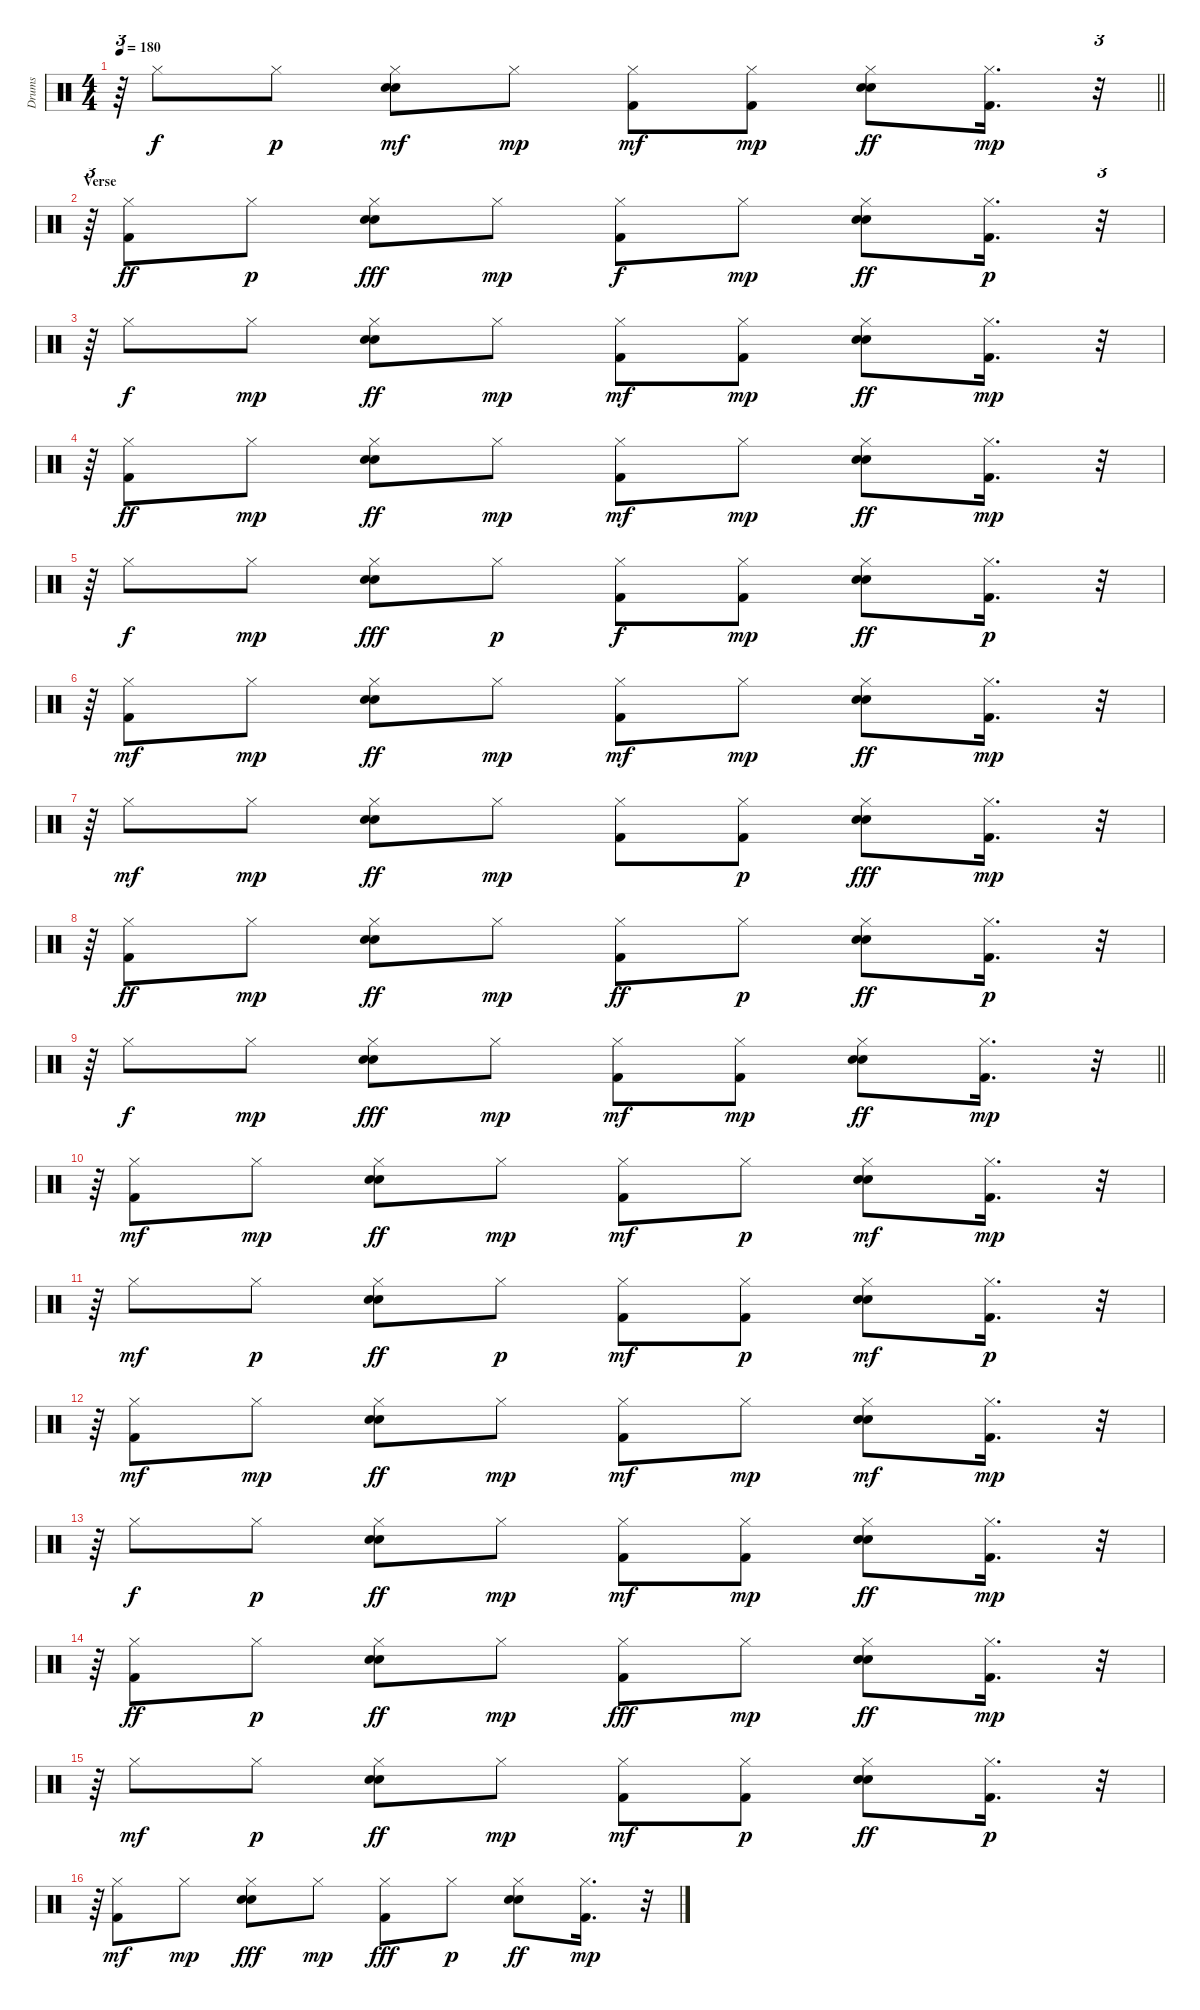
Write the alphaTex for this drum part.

\track ("Drums" "Drums") {instrument percussion}
\staff {score}
\articulation defaults
\ts (4 4)
\tempo 180
\clef neutral
\barLineRight lightlight
\ks c
r.64{tu (3 2) dy mp} "Hi-Hat (closed)".8{dy f} "Hi-Hat (closed)".8{dy p} ("Electric Snare (hit)" "Snare (hit) 2" "Hi-Hat (closed)").8{dy mf} "Hi-Hat (closed)".8{dy mp} ("Kick (hit) 2" "Hi-Hat (closed)").8{dy mf} ("Kick (hit) 2" "Hi-Hat (closed)").8{dy mp} ("Electric Snare (hit)" "Snare (hit) 2" "Hi-Hat (closed)").8{dy ff} ("Kick (hit) 2" "Hi-Hat (closed)").16{d dy mp} r.32{tu (3 2)} |
\section ("" "Verse")
r.64{tu (3 2)} ("Kick (hit) 2" "Hi-Hat (closed)").8{dy ff} "Hi-Hat (closed)".8{dy p} ("Electric Snare (hit)" "Snare (hit) 2" "Hi-Hat (closed)").8{dy fff} "Hi-Hat (closed)".8{dy mp} ("Kick (hit) 2" "Hi-Hat (closed)").8{dy f} "Hi-Hat (closed)".8{dy mp} ("Electric Snare (hit)" "Snare (hit) 2" "Hi-Hat (closed)").8{dy ff} ("Kick (hit) 2" "Hi-Hat (closed)").16{d dy p} r.32{tu (3 2)} |
r.64{tu (3 2)} "Hi-Hat (closed)".8{dy f} "Hi-Hat (closed)".8{dy mp} ("Electric Snare (hit)" "Snare (hit) 2" "Hi-Hat (closed)").8{dy ff} "Hi-Hat (closed)".8{dy mp} ("Kick (hit) 2" "Hi-Hat (closed)").8{dy mf} ("Kick (hit) 2" "Hi-Hat (closed)").8{dy mp} ("Electric Snare (hit)" "Snare (hit) 2" "Hi-Hat (closed)").8{dy ff} ("Kick (hit) 2" "Hi-Hat (closed)").16{d dy mp} r.32{tu (3 2)} |
r.64{tu (3 2)} ("Kick (hit) 2" "Hi-Hat (closed)").8{dy ff} "Hi-Hat (closed)".8{dy mp} ("Electric Snare (hit)" "Snare (hit) 2" "Hi-Hat (closed)").8{dy ff} "Hi-Hat (closed)".8{dy mp} ("Kick (hit) 2" "Hi-Hat (closed)").8{dy mf} "Hi-Hat (closed)".8{dy mp} ("Electric Snare (hit)" "Snare (hit) 2" "Hi-Hat (closed)").8{dy ff} ("Kick (hit) 2" "Hi-Hat (closed)").16{d dy mp} r.32{tu (3 2)} |
r.64{tu (3 2)} "Hi-Hat (closed)".8{dy f} "Hi-Hat (closed)".8{dy mp} ("Electric Snare (hit)" "Snare (hit) 2" "Hi-Hat (closed)").8{dy fff} "Hi-Hat (closed)".8{dy p} ("Kick (hit) 2" "Hi-Hat (closed)").8{dy f} ("Kick (hit) 2" "Hi-Hat (closed)").8{dy mp} ("Electric Snare (hit)" "Snare (hit) 2" "Hi-Hat (closed)").8{dy ff} ("Kick (hit) 2" "Hi-Hat (closed)").16{d dy p} r.32{tu (3 2)} |
r.64{tu (3 2)} ("Kick (hit) 2" "Hi-Hat (closed)").8{dy mf} "Hi-Hat (closed)".8{dy mp} ("Electric Snare (hit)" "Snare (hit) 2" "Hi-Hat (closed)").8{dy ff} "Hi-Hat (closed)".8{dy mp} ("Kick (hit) 2" "Hi-Hat (closed)").8{dy mf} "Hi-Hat (closed)".8{dy mp} ("Electric Snare (hit)" "Snare (hit) 2" "Hi-Hat (closed)").8{dy ff} ("Kick (hit) 2" "Hi-Hat (closed)").16{d dy mp} r.32{tu (3 2)} |
r.64{tu (3 2)} "Hi-Hat (closed)".8{dy mf} "Hi-Hat (closed)".8{dy mp} ("Electric Snare (hit)" "Snare (hit) 2" "Hi-Hat (closed)").8{dy ff} "Hi-Hat (closed)".8{dy mp} ("Kick (hit) 2" "Hi-Hat (closed)").8 ("Kick (hit) 2" "Hi-Hat (closed)").8{dy p} ("Electric Snare (hit)" "Snare (hit) 2" "Hi-Hat (closed)").8{dy fff} ("Kick (hit) 2" "Hi-Hat (closed)").16{d dy mp} r.32{tu (3 2)} |
r.64{tu (3 2)} ("Kick (hit) 2" "Hi-Hat (closed)").8{dy ff} "Hi-Hat (closed)".8{dy mp} ("Electric Snare (hit)" "Snare (hit) 2" "Hi-Hat (closed)").8{dy ff} "Hi-Hat (closed)".8{dy mp} ("Kick (hit) 2" "Hi-Hat (closed)").8{dy ff} "Hi-Hat (closed)".8{dy p} ("Electric Snare (hit)" "Snare (hit) 2" "Hi-Hat (closed)").8{dy ff} ("Kick (hit) 2" "Hi-Hat (closed)").16{d dy p} r.32{tu (3 2)} |
\barLineRight lightlight
r.64{tu (3 2)} "Hi-Hat (closed)".8{dy f} "Hi-Hat (closed)".8{dy mp} ("Electric Snare (hit)" "Snare (hit) 2" "Hi-Hat (closed)").8{dy fff} "Hi-Hat (closed)".8{dy mp} ("Kick (hit) 2" "Hi-Hat (closed)").8{dy mf} ("Kick (hit) 2" "Hi-Hat (closed)").8{dy mp} ("Electric Snare (hit)" "Snare (hit) 2" "Hi-Hat (closed)").8{dy ff} ("Kick (hit) 2" "Hi-Hat (closed)").16{d dy mp} r.32{tu (3 2)} |
r.64{tu (3 2)} ("Kick (hit) 2" "Hi-Hat (closed)").8{dy mf} "Hi-Hat (closed)".8{dy mp} ("Electric Snare (hit)" "Snare (hit) 2" "Hi-Hat (closed)").8{dy ff} "Hi-Hat (closed)".8{dy mp} ("Kick (hit) 2" "Hi-Hat (closed)").8{dy mf} "Hi-Hat (closed)".8{dy p} ("Electric Snare (hit)" "Snare (hit) 2" "Hi-Hat (closed)").8{dy mf} ("Kick (hit) 2" "Hi-Hat (closed)").16{d dy mp} r.32{tu (3 2)} |
r.64{tu (3 2)} "Hi-Hat (closed)".8{dy mf} "Hi-Hat (closed)".8{dy p} ("Electric Snare (hit)" "Snare (hit) 2" "Hi-Hat (closed)").8{dy ff} "Hi-Hat (closed)".8{dy p} ("Kick (hit) 2" "Hi-Hat (closed)").8{dy mf} ("Kick (hit) 2" "Hi-Hat (closed)").8{dy p} ("Electric Snare (hit)" "Snare (hit) 2" "Hi-Hat (closed)").8{dy mf} ("Kick (hit) 2" "Hi-Hat (closed)").16{d dy p} r.32{tu (3 2)} |
r.64{tu (3 2)} ("Kick (hit) 2" "Hi-Hat (closed)").8{dy mf} "Hi-Hat (closed)".8{dy mp} ("Electric Snare (hit)" "Snare (hit) 2" "Hi-Hat (closed)").8{dy ff} "Hi-Hat (closed)".8{dy mp} ("Kick (hit) 2" "Hi-Hat (closed)").8{dy mf} "Hi-Hat (closed)".8{dy mp} ("Electric Snare (hit)" "Snare (hit) 2" "Hi-Hat (closed)").8{dy mf} ("Kick (hit) 2" "Hi-Hat (closed)").16{d dy mp} r.32{tu (3 2)} |
r.64{tu (3 2)} "Hi-Hat (closed)".8{dy f} "Hi-Hat (closed)".8{dy p} ("Electric Snare (hit)" "Snare (hit) 2" "Hi-Hat (closed)").8{dy ff} "Hi-Hat (closed)".8{dy mp} ("Kick (hit) 2" "Hi-Hat (closed)").8{dy mf} ("Kick (hit) 2" "Hi-Hat (closed)").8{dy mp} ("Electric Snare (hit)" "Snare (hit) 2" "Hi-Hat (closed)").8{dy ff} ("Kick (hit) 2" "Hi-Hat (closed)").16{d dy mp} r.32{tu (3 2)} |
r.64{tu (3 2)} ("Kick (hit) 2" "Hi-Hat (closed)").8{dy ff} "Hi-Hat (closed)".8{dy p} ("Electric Snare (hit)" "Snare (hit) 2" "Hi-Hat (closed)").8{dy ff} "Hi-Hat (closed)".8{dy mp} ("Kick (hit) 2" "Hi-Hat (closed)").8{dy fff} "Hi-Hat (closed)".8{dy mp} ("Electric Snare (hit)" "Snare (hit) 2" "Hi-Hat (closed)").8{dy ff} ("Kick (hit) 2" "Hi-Hat (closed)").16{d dy mp} r.32{tu (3 2)} |
r.64{tu (3 2)} "Hi-Hat (closed)".8{dy mf} "Hi-Hat (closed)".8{dy p} ("Electric Snare (hit)" "Snare (hit) 2" "Hi-Hat (closed)").8{dy ff} "Hi-Hat (closed)".8{dy mp} ("Kick (hit) 2" "Hi-Hat (closed)").8{dy mf} ("Kick (hit) 2" "Hi-Hat (closed)").8{dy p} ("Electric Snare (hit)" "Snare (hit) 2" "Hi-Hat (closed)").8{dy ff} ("Kick (hit) 2" "Hi-Hat (closed)").16{d dy p} r.32{tu (3 2)} |
r.64{tu (3 2)} ("Kick (hit) 2" "Hi-Hat (closed)").8{dy mf} "Hi-Hat (closed)".8{dy mp} ("Electric Snare (hit)" "Snare (hit) 2" "Hi-Hat (closed)").8{dy fff} "Hi-Hat (closed)".8{dy mp} ("Kick (hit) 2" "Hi-Hat (closed)").8{dy fff} "Hi-Hat (closed)".8{dy p} ("Electric Snare (hit)" "Snare (hit) 2" "Hi-Hat (closed)").8{dy ff} ("Kick (hit) 2" "Hi-Hat (closed)").16{d dy mp} r.32{tu (3 2)}
